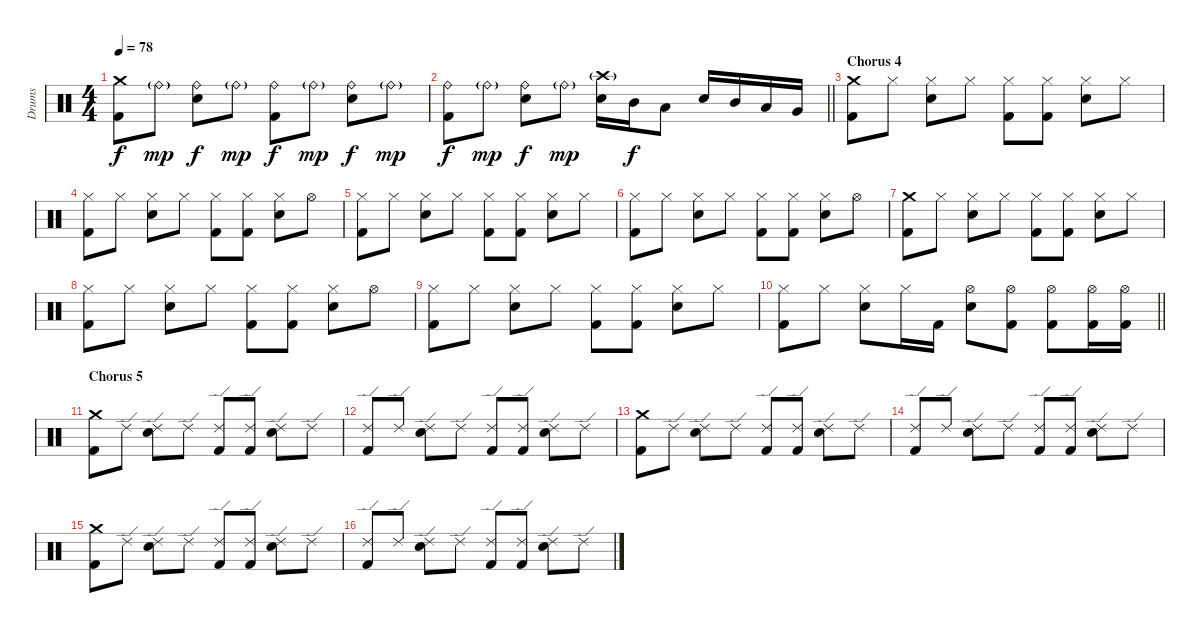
\track ("Drums" "Drums") {instrument percussion}
\staff {score}
\articulation defaults
\ts (4 4)
\tempo 78
\clef neutral
\ks c
("Crash medium (hit)" "Kick (hit) 2").8{dy f} "Ride (bell)"{g}.8{dy mp} ("Ride (bell)" "Electric Snare (hit)").8{dy f} "Ride (bell)"{g}.8{dy mp} ("Ride (bell)" "Kick (hit) 2").8{dy f} "Ride (bell)"{g}.8{dy mp} ("Ride (bell)" "Electric Snare (hit)").8{dy f} "Ride (bell)"{g}.8{dy mp} |
\barLineRight lightlight
("Ride (bell)" "Kick (hit) 2").8{dy f} "Ride (bell)"{g}.8{dy mp} ("Ride (bell)" "Electric Snare (hit)").8{dy f} "Ride (bell)"{g}.8{dy mp} ("Crash high (hit)"{g} "Electric Snare (hit)").16 "Mid Tom (hit)".16{dy f} "Low Tom (hit)".8 "Electric Snare (hit)".16 "Mid Tom (hit)".16 "Low Tom (hit)".16 "Very Low Tom (hit)".16 |
\section ("" "Chorus 4")
("Crash medium (hit)" "Kick (hit) 2").8 "Hi-Hat (closed)".8 ("Hi-Hat (closed)" "Electric Snare (hit)").8 "Hi-Hat (closed)".8 ("Hi-Hat (closed)" "Kick (hit) 2").8 ("Hi-Hat (closed)" "Kick (hit) 2").8 ("Hi-Hat (closed)" "Electric Snare (hit)").8 "Hi-Hat (closed)".8 |
("Hi-Hat (closed)" "Kick (hit) 2").8 "Hi-Hat (closed)".8 ("Hi-Hat (closed)" "Electric Snare (hit)").8 "Hi-Hat (closed)".8 ("Hi-Hat (closed)" "Kick (hit) 2").8 ("Hi-Hat (closed)" "Kick (hit) 2").8 ("Hi-Hat (closed)" "Electric Snare (hit)").8 "Hi-Hat (open)".8 |
("Hi-Hat (closed)" "Kick (hit) 2").8 "Hi-Hat (closed)".8 ("Hi-Hat (closed)" "Electric Snare (hit)").8 "Hi-Hat (closed)".8 ("Hi-Hat (closed)" "Kick (hit) 2").8 ("Hi-Hat (closed)" "Kick (hit) 2").8 ("Hi-Hat (closed)" "Electric Snare (hit)").8 "Hi-Hat (closed)".8 |
("Hi-Hat (closed)" "Kick (hit) 2").8 "Hi-Hat (closed)".8 ("Hi-Hat (closed)" "Electric Snare (hit)").8 "Hi-Hat (closed)".8 ("Hi-Hat (closed)" "Kick (hit) 2").8 ("Hi-Hat (closed)" "Kick (hit) 2").8 ("Hi-Hat (closed)" "Electric Snare (hit)").8 "Hi-Hat (open)".8 |
("Crash medium (hit)" "Kick (hit) 2").8 "Hi-Hat (closed)".8 ("Hi-Hat (closed)" "Electric Snare (hit)").8 "Hi-Hat (closed)".8 ("Hi-Hat (closed)" "Kick (hit) 2").8 ("Hi-Hat (closed)" "Kick (hit) 2").8 ("Hi-Hat (closed)" "Electric Snare (hit)").8 "Hi-Hat (closed)".8 |
("Hi-Hat (closed)" "Kick (hit) 2").8 "Hi-Hat (closed)".8 ("Hi-Hat (closed)" "Electric Snare (hit)").8 "Hi-Hat (closed)".8 ("Hi-Hat (closed)" "Kick (hit) 2").8 ("Hi-Hat (closed)" "Kick (hit) 2").8 ("Hi-Hat (closed)" "Electric Snare (hit)").8 "Hi-Hat (open)".8 |
("Hi-Hat (closed)" "Kick (hit) 2").8 "Hi-Hat (closed)".8 ("Hi-Hat (closed)" "Electric Snare (hit)").8 "Hi-Hat (closed)".8 ("Hi-Hat (closed)" "Kick (hit) 2").8 ("Hi-Hat (closed)" "Kick (hit) 2").8 ("Hi-Hat (closed)" "Electric Snare (hit)").8 "Hi-Hat (closed)".8 |
\barLineRight lightlight
("Hi-Hat (closed)" "Kick (hit) 2").8 "Hi-Hat (closed)".8 ("Hi-Hat (closed)" "Electric Snare (hit)").8 "Hi-Hat (closed)".16 "Kick (hit) 2".16 ("Hi-Hat (open)" "Electric Snare (hit)").8 ("Hi-Hat (open)" "Kick (hit) 2").8 ("Hi-Hat (open)" "Kick (hit) 2").8 ("Hi-Hat (open)" "Kick (hit) 2").16 ("Hi-Hat (open)" "Kick (hit) 2").16 |
\section ("" "Chorus 5")
("Crash medium (hit)" "Kick (hit) 2").8 "Ride (edge) 2".8 ("Ride (edge) 2" "Electric Snare (hit)").8 "Ride (edge) 2".8 ("Ride (edge) 2" "Kick (hit) 2").8 ("Ride (edge) 2" "Kick (hit) 2").8 ("Ride (edge) 2" "Electric Snare (hit)").8 "Ride (edge) 2".8 |
("Ride (edge) 2" "Kick (hit) 2").8 "Ride (edge) 2".8 ("Ride (edge) 2" "Electric Snare (hit)").8 "Ride (edge) 2".8 ("Ride (edge) 2" "Kick (hit) 2").8 ("Ride (edge) 2" "Kick (hit) 2").8 ("Ride (edge) 2" "Electric Snare (hit)").8 "Ride (edge) 2".8 |
("Crash medium (hit)" "Kick (hit) 2").8 "Ride (edge) 2".8 ("Ride (edge) 2" "Electric Snare (hit)").8 "Ride (edge) 2".8 ("Ride (edge) 2" "Kick (hit) 2").8 ("Ride (edge) 2" "Kick (hit) 2").8 ("Ride (edge) 2" "Electric Snare (hit)").8 "Ride (edge) 2".8 |
("Ride (edge) 2" "Kick (hit) 2").8 "Ride (edge) 2".8 ("Ride (edge) 2" "Electric Snare (hit)").8 "Ride (edge) 2".8 ("Ride (edge) 2" "Kick (hit) 2").8 ("Ride (edge) 2" "Kick (hit) 2").8 ("Ride (edge) 2" "Electric Snare (hit)").8 "Ride (edge) 2".8 |
("Crash medium (hit)" "Kick (hit) 2").8 "Ride (edge) 2".8 ("Ride (edge) 2" "Electric Snare (hit)").8 "Ride (edge) 2".8 ("Ride (edge) 2" "Kick (hit) 2").8 ("Ride (edge) 2" "Kick (hit) 2").8 ("Ride (edge) 2" "Electric Snare (hit)").8 "Ride (edge) 2".8 |
("Ride (edge) 2" "Kick (hit) 2").8 "Ride (edge) 2".8 ("Ride (edge) 2" "Electric Snare (hit)").8 "Ride (edge) 2".8 ("Ride (edge) 2" "Kick (hit) 2").8 ("Ride (edge) 2" "Kick (hit) 2").8 ("Ride (edge) 2" "Electric Snare (hit)").8 "Ride (edge) 2".8
